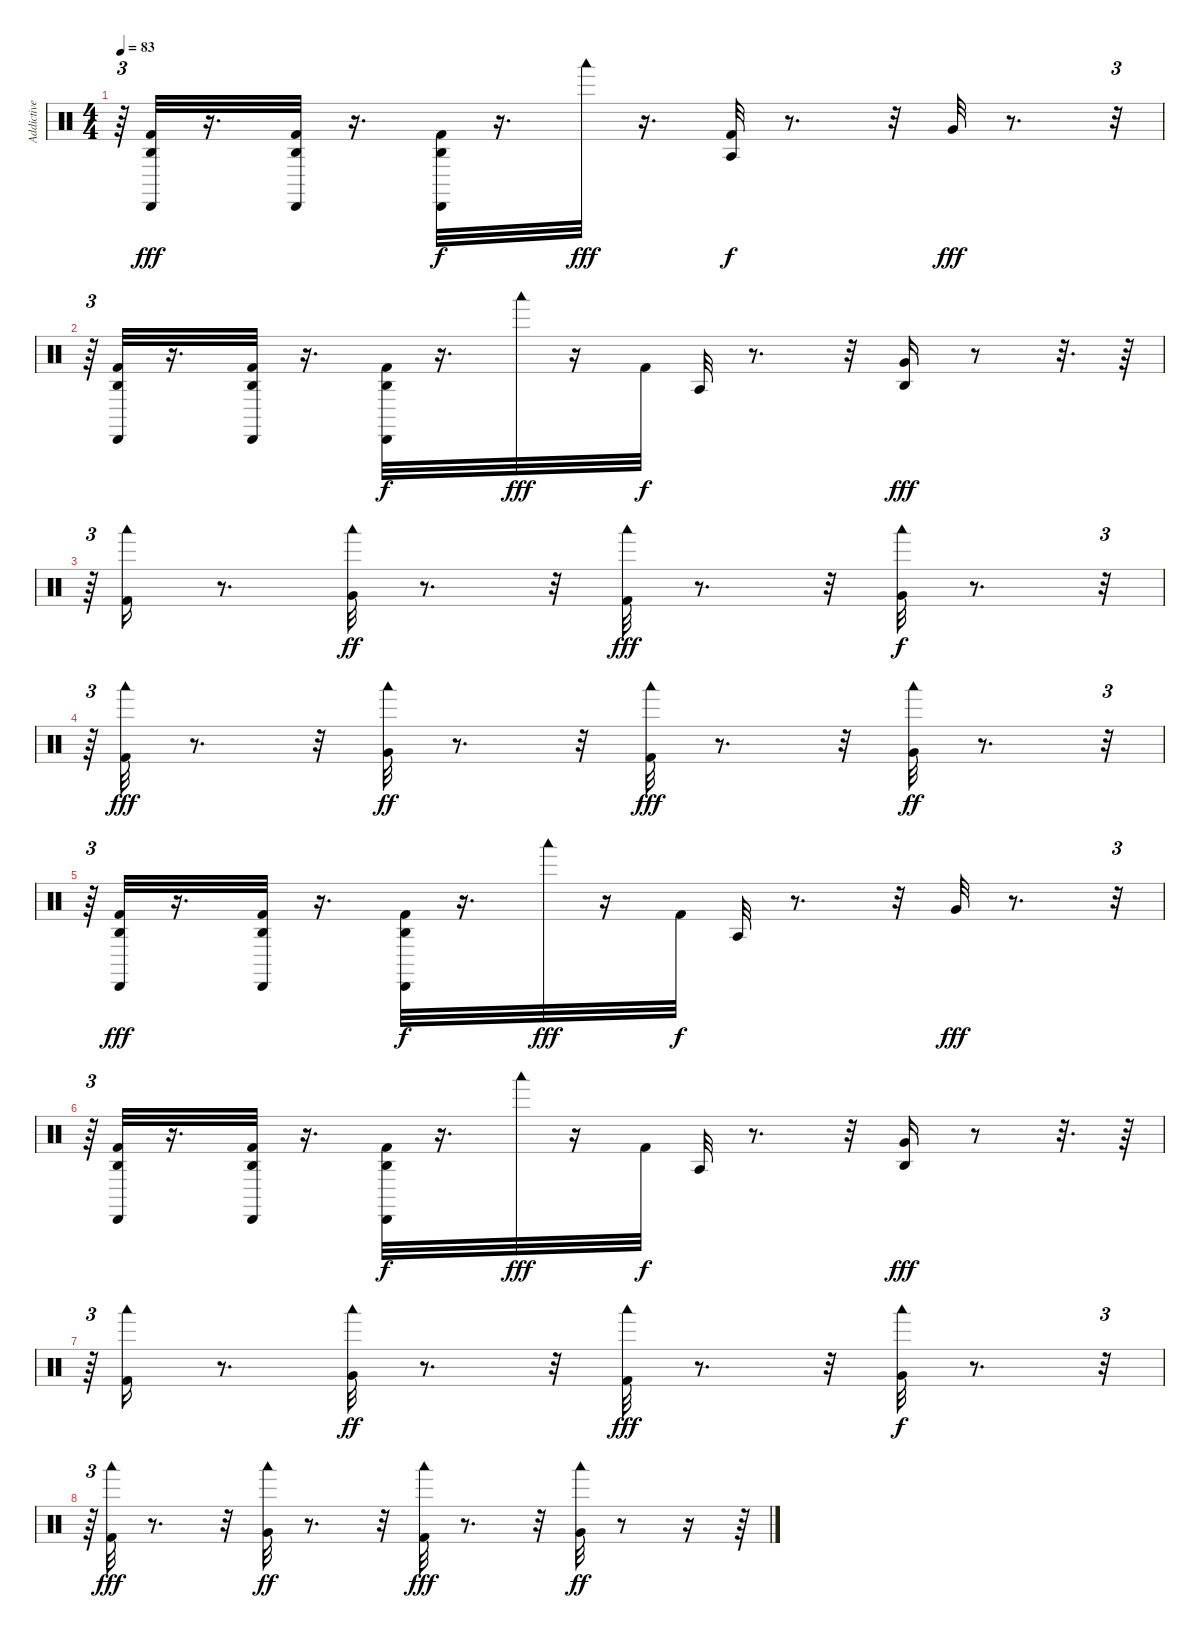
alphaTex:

\track ("Addictive Drums 2 01" "Addictive ") {instrument percussion}
\staff {score}
\articulation defaults
\ts (4 4)
\tempo 83
\clef neutral
\ks c
r.64{tu (3 2) dy ff} ("Kick (hit) 2" "Cabasa (hit)" "Agogo high (hit)").32{dy fff} r.16{d} ("Kick (hit) 2" "Cabasa (hit)" "Agogo high (hit)").32 r.16{d} ("Cabasa (hit)" "Kick (hit) 2" "Agogo high (hit)").32{dy f} r.16{d} "Woodblock low (hit)".32{dy fff} r.16{d} ("Kick (hit) 2" "Agogo tow (hit)").32{dy f} r.8{d} r.32 "Very Low Tom (hit)".32{dy fff} r.8{d} r.32{tu (3 2)} |
r.64{tu (3 2)} ("Kick (hit) 2" "Cabasa (hit)" "Agogo high (hit)").32 r.16{d} ("Kick (hit) 2" "Cabasa (hit)" "Agogo high (hit)").32 r.16{d} ("Cabasa (hit)" "Kick (hit) 2" "Agogo high (hit)").32{dy f} r.16{d} "Woodblock low (hit)".32{dy fff} r.16 "Kick (hit) 2".32{dy f} "Agogo tow (hit)".32 r.8{d} r.32 ("Very Low Tom (hit)" "Agogo high (hit)").16{dy fff} r.8 r.32{d} r.64 |
r.64{tu (3 2)} ("Woodblock low (hit)" "Kick (hit) 2").16 r.8{d} ("Woodblock low (hit)" "Very Low Tom (hit)").32{dy ff} r.8{d} r.32 ("Kick (hit) 2" "Woodblock low (hit)").32{dy fff} r.8{d} r.32 ("Very Low Tom (hit)" "Woodblock low (hit)").32{dy f} r.8{d} r.32{tu (3 2)} |
r.64{tu (3 2)} ("Woodblock low (hit)" "Kick (hit) 2").32{dy fff} r.8{d} r.32 ("Very Low Tom (hit)" "Woodblock low (hit)").32{dy ff} r.8{d} r.32 ("Kick (hit) 2" "Woodblock low (hit)").32{dy fff} r.8{d} r.32 ("Very Low Tom (hit)" "Woodblock low (hit)").32{dy ff} r.8{d} r.32{tu (3 2)} |
r.64{tu (3 2)} ("Kick (hit) 2" "Cabasa (hit)" "Agogo high (hit)").32{dy fff} r.16{d} ("Kick (hit) 2" "Cabasa (hit)" "Agogo high (hit)").32 r.16{d} ("Cabasa (hit)" "Kick (hit) 2" "Agogo high (hit)").32{dy f} r.16{d} "Woodblock low (hit)".32{dy fff} r.16 "Kick (hit) 2".32{dy f} "Agogo tow (hit)".32 r.8{d} r.32 "Very Low Tom (hit)".32{dy fff} r.8{d} r.32{tu (3 2)} |
r.64{tu (3 2)} ("Kick (hit) 2" "Cabasa (hit)" "Agogo high (hit)").32 r.16{d} ("Kick (hit) 2" "Cabasa (hit)" "Agogo high (hit)").32 r.16{d} ("Cabasa (hit)" "Kick (hit) 2" "Agogo high (hit)").32{dy f} r.16{d} "Woodblock low (hit)".32{dy fff} r.16 "Kick (hit) 2".32{dy f} "Agogo tow (hit)".32 r.8{d} r.32 ("Very Low Tom (hit)" "Agogo high (hit)").16{dy fff} r.8 r.32{d} r.64 |
r.64{tu (3 2)} ("Woodblock low (hit)" "Kick (hit) 2").16 r.8{d} ("Woodblock low (hit)" "Very Low Tom (hit)").32{dy ff} r.8{d} r.32 ("Kick (hit) 2" "Woodblock low (hit)").32{dy fff} r.8{d} r.32 ("Very Low Tom (hit)" "Woodblock low (hit)").32{dy f} r.8{d} r.32{tu (3 2)} |
r.64{tu (3 2)} ("Woodblock low (hit)" "Kick (hit) 2").32{dy fff} r.8{d} r.32 ("Very Low Tom (hit)" "Woodblock low (hit)").32{dy ff} r.8{d} r.32 ("Kick (hit) 2" "Woodblock low (hit)").32{dy fff} r.8{d} r.32 ("Very Low Tom (hit)" "Woodblock low (hit)").32{dy ff} r.8 r.16 r.64
